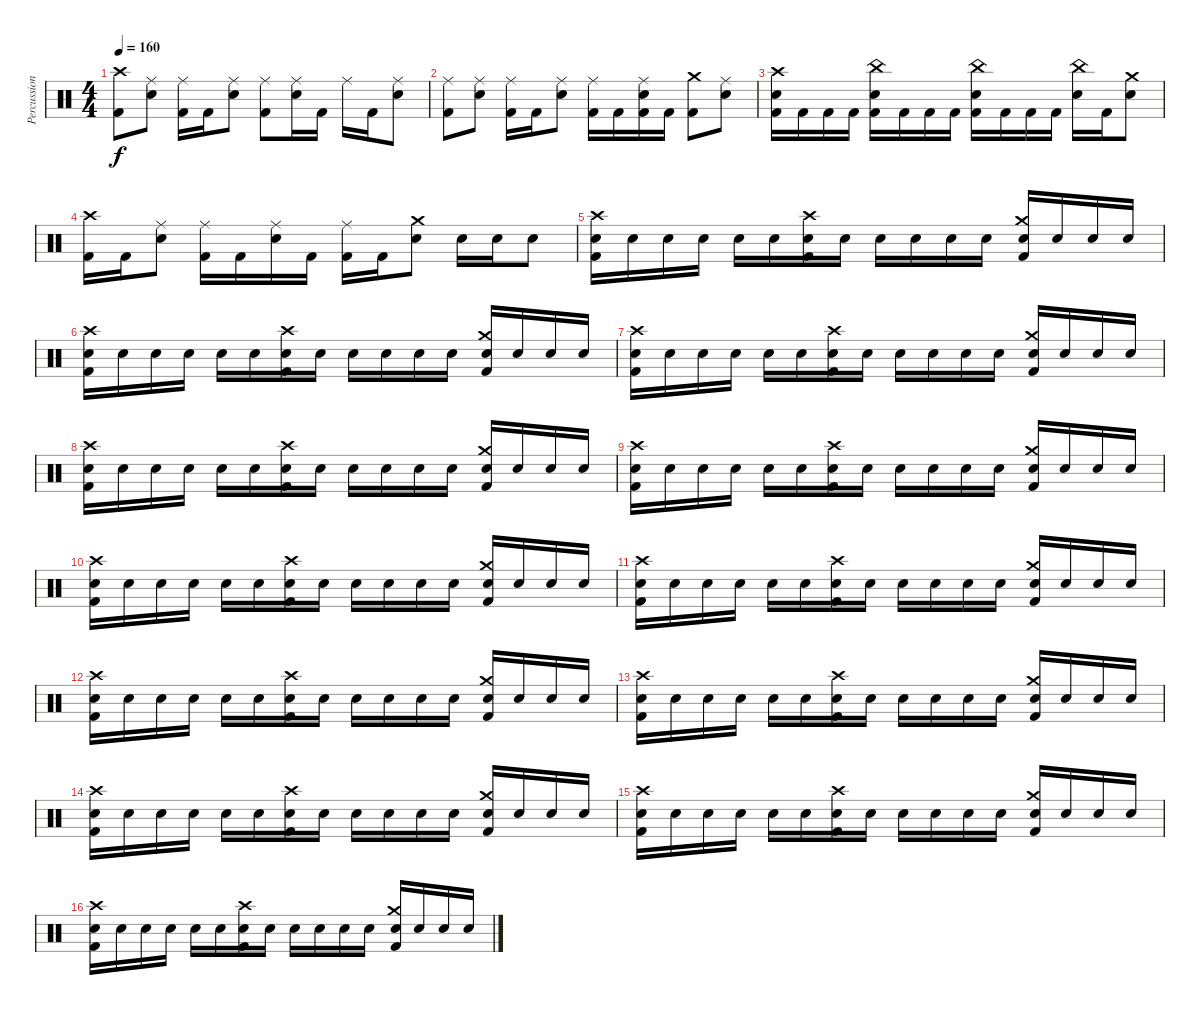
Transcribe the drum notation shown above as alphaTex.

\track ("Percussion" "Percussion") {instrument percussion}
\staff {score}
\articulation defaults
\ts (4 4)
\tempo 160
\clef neutral
\ks c
("Crash high (hit)" "Kick (hit) 2").8{dy f} ("Ride (middle)" "Electric Snare (hit)").8 ("Ride (middle)" "Kick (hit) 2").16 "Kick (hit) 2".16 ("Ride (middle)" "Electric Snare (hit)").8 ("Ride (middle)" "Kick (hit) 2").8 ("Ride (middle)" "Electric Snare (hit)").16 "Kick (hit) 2".16 "Ride (middle)".16 "Kick (hit) 2".16 ("Ride (middle)" "Electric Snare (hit)").8 |
("Ride (middle)" "Kick (hit) 2").8 ("Ride (middle)" "Electric Snare (hit)").8 ("Ride (middle)" "Kick (hit) 2").16 "Kick (hit) 2".16 ("Ride (middle)" "Electric Snare (hit)").8 ("Ride (middle)" "Kick (hit) 2").16 "Kick (hit) 2".16 ("Ride (middle)" "Electric Snare (hit)" "Kick (hit) 2").16 "Kick (hit) 2".16 ("Crash medium (hit)" "Kick (hit) 2").8 ("Ride (middle)" "Electric Snare (hit)").8 |
("Crash high (hit)" "Electric Snare (hit)" "Kick (hit) 2").16 "Kick (hit) 2".16 "Kick (hit) 2".16 "Kick (hit) 2".16 ("China (hit)" "Electric Snare (hit)" "Kick (hit) 2").16 "Kick (hit) 2".16 "Kick (hit) 2".16 "Kick (hit) 2".16 ("China (hit)" "Electric Snare (hit)" "Kick (hit) 2").16 "Kick (hit) 2".16 "Kick (hit) 2".16 "Kick (hit) 2".16 ("China (hit)" "Electric Snare (hit)").16 "Kick (hit) 2".16 ("Crash medium (hit)" "Electric Snare (hit)").8 |
("Crash high (hit)" "Kick (hit) 2").16 "Kick (hit) 2".16 ("Ride (middle)" "Electric Snare (hit)").8 ("Ride (middle)" "Kick (hit) 2").16 "Kick (hit) 2".16 ("Ride (middle)" "Electric Snare (hit)").16 "Kick (hit) 2".16 ("Ride (middle)" "Kick (hit) 2").16 "Kick (hit) 2".16 ("Crash medium (hit)" "Electric Snare (hit)").8 "Electric Snare (hit)".16 "Electric Snare (hit)".16 "Electric Snare (hit)".8 |
("Snare (hit) 2" "Kick (hit) 2" "Crash high (hit)").16 "Snare (hit) 2".16 "Snare (hit) 2".16 "Snare (hit) 2".16 "Snare (hit) 2".16 "Snare (hit) 2".16 ("Snare (hit) 2" "Kick (hit) 2" "Crash high (hit)").16 "Snare (hit) 2".16 "Snare (hit) 2".16 "Snare (hit) 2".16 "Snare (hit) 2".16 "Snare (hit) 2".16 ("Snare (hit) 2" "Kick (hit) 2" "Crash medium (hit)").16 "Snare (hit) 2".16 "Snare (hit) 2".16 "Snare (hit) 2".16 |
("Snare (hit) 2" "Kick (hit) 2" "Crash high (hit)").16 "Snare (hit) 2".16 "Snare (hit) 2".16 "Snare (hit) 2".16 "Snare (hit) 2".16 "Snare (hit) 2".16 ("Snare (hit) 2" "Kick (hit) 2" "Crash high (hit)").16 "Snare (hit) 2".16 "Snare (hit) 2".16 "Snare (hit) 2".16 "Snare (hit) 2".16 "Snare (hit) 2".16 ("Snare (hit) 2" "Kick (hit) 2" "Crash medium (hit)").16 "Snare (hit) 2".16 "Snare (hit) 2".16 "Snare (hit) 2".16 |
("Snare (hit) 2" "Kick (hit) 2" "Crash high (hit)").16 "Snare (hit) 2".16 "Snare (hit) 2".16 "Snare (hit) 2".16 "Snare (hit) 2".16 "Snare (hit) 2".16 ("Snare (hit) 2" "Kick (hit) 2" "Crash high (hit)").16 "Snare (hit) 2".16 "Snare (hit) 2".16 "Snare (hit) 2".16 "Snare (hit) 2".16 "Snare (hit) 2".16 ("Snare (hit) 2" "Kick (hit) 2" "Crash medium (hit)").16 "Snare (hit) 2".16 "Snare (hit) 2".16 "Snare (hit) 2".16 |
("Snare (hit) 2" "Kick (hit) 2" "Crash high (hit)").16 "Snare (hit) 2".16 "Snare (hit) 2".16 "Snare (hit) 2".16 "Snare (hit) 2".16 "Snare (hit) 2".16 ("Snare (hit) 2" "Kick (hit) 2" "Crash high (hit)").16 "Snare (hit) 2".16 "Snare (hit) 2".16 "Snare (hit) 2".16 "Snare (hit) 2".16 "Snare (hit) 2".16 ("Snare (hit) 2" "Kick (hit) 2" "Crash medium (hit)").16 "Snare (hit) 2".16 "Snare (hit) 2".16 "Snare (hit) 2".16 |
("Snare (hit) 2" "Kick (hit) 2" "Crash high (hit)").16 "Snare (hit) 2".16 "Snare (hit) 2".16 "Snare (hit) 2".16 "Snare (hit) 2".16 "Snare (hit) 2".16 ("Snare (hit) 2" "Kick (hit) 2" "Crash high (hit)").16 "Snare (hit) 2".16 "Snare (hit) 2".16 "Snare (hit) 2".16 "Snare (hit) 2".16 "Snare (hit) 2".16 ("Snare (hit) 2" "Kick (hit) 2" "Crash medium (hit)").16 "Snare (hit) 2".16 "Snare (hit) 2".16 "Snare (hit) 2".16 |
("Snare (hit) 2" "Kick (hit) 2" "Crash high (hit)").16 "Snare (hit) 2".16 "Snare (hit) 2".16 "Snare (hit) 2".16 "Snare (hit) 2".16 "Snare (hit) 2".16 ("Snare (hit) 2" "Kick (hit) 2" "Crash high (hit)").16 "Snare (hit) 2".16 "Snare (hit) 2".16 "Snare (hit) 2".16 "Snare (hit) 2".16 "Snare (hit) 2".16 ("Snare (hit) 2" "Kick (hit) 2" "Crash medium (hit)").16 "Snare (hit) 2".16 "Snare (hit) 2".16 "Snare (hit) 2".16 |
("Snare (hit) 2" "Kick (hit) 2" "Crash high (hit)").16 "Snare (hit) 2".16 "Snare (hit) 2".16 "Snare (hit) 2".16 "Snare (hit) 2".16 "Snare (hit) 2".16 ("Snare (hit) 2" "Kick (hit) 2" "Crash high (hit)").16 "Snare (hit) 2".16 "Snare (hit) 2".16 "Snare (hit) 2".16 "Snare (hit) 2".16 "Snare (hit) 2".16 ("Snare (hit) 2" "Kick (hit) 2" "Crash medium (hit)").16 "Snare (hit) 2".16 "Snare (hit) 2".16 "Snare (hit) 2".16 |
("Snare (hit) 2" "Kick (hit) 2" "Crash high (hit)").16 "Snare (hit) 2".16 "Snare (hit) 2".16 "Snare (hit) 2".16 "Snare (hit) 2".16 "Snare (hit) 2".16 ("Snare (hit) 2" "Kick (hit) 2" "Crash high (hit)").16 "Snare (hit) 2".16 "Snare (hit) 2".16 "Snare (hit) 2".16 "Snare (hit) 2".16 "Snare (hit) 2".16 ("Snare (hit) 2" "Kick (hit) 2" "Crash medium (hit)").16 "Snare (hit) 2".16 "Snare (hit) 2".16 "Snare (hit) 2".16 |
("Snare (hit) 2" "Kick (hit) 2" "Crash high (hit)").16 "Snare (hit) 2".16 "Snare (hit) 2".16 "Snare (hit) 2".16 "Snare (hit) 2".16 "Snare (hit) 2".16 ("Snare (hit) 2" "Kick (hit) 2" "Crash high (hit)").16 "Snare (hit) 2".16 "Snare (hit) 2".16 "Snare (hit) 2".16 "Snare (hit) 2".16 "Snare (hit) 2".16 ("Snare (hit) 2" "Kick (hit) 2" "Crash medium (hit)").16 "Snare (hit) 2".16 "Snare (hit) 2".16 "Snare (hit) 2".16 |
("Snare (hit) 2" "Kick (hit) 2" "Crash high (hit)").16 "Snare (hit) 2".16 "Snare (hit) 2".16 "Snare (hit) 2".16 "Snare (hit) 2".16 "Snare (hit) 2".16 ("Snare (hit) 2" "Kick (hit) 2" "Crash high (hit)").16 "Snare (hit) 2".16 "Snare (hit) 2".16 "Snare (hit) 2".16 "Snare (hit) 2".16 "Snare (hit) 2".16 ("Snare (hit) 2" "Kick (hit) 2" "Crash medium (hit)").16 "Snare (hit) 2".16 "Snare (hit) 2".16 "Snare (hit) 2".16 |
("Snare (hit) 2" "Kick (hit) 2" "Crash high (hit)").16 "Snare (hit) 2".16 "Snare (hit) 2".16 "Snare (hit) 2".16 "Snare (hit) 2".16 "Snare (hit) 2".16 ("Snare (hit) 2" "Kick (hit) 2" "Crash high (hit)").16 "Snare (hit) 2".16 "Snare (hit) 2".16 "Snare (hit) 2".16 "Snare (hit) 2".16 "Snare (hit) 2".16 ("Snare (hit) 2" "Kick (hit) 2" "Crash medium (hit)").16 "Snare (hit) 2".16 "Snare (hit) 2".16 "Snare (hit) 2".16 |
("Snare (hit) 2" "Kick (hit) 2" "Crash high (hit)").16 "Snare (hit) 2".16 "Snare (hit) 2".16 "Snare (hit) 2".16 "Snare (hit) 2".16 "Snare (hit) 2".16 ("Snare (hit) 2" "Kick (hit) 2" "Crash high (hit)").16 "Snare (hit) 2".16 "Snare (hit) 2".16 "Snare (hit) 2".16 "Snare (hit) 2".16 "Snare (hit) 2".16 ("Snare (hit) 2" "Kick (hit) 2" "Crash medium (hit)").16 "Snare (hit) 2".16 "Snare (hit) 2".16 "Snare (hit) 2".16
